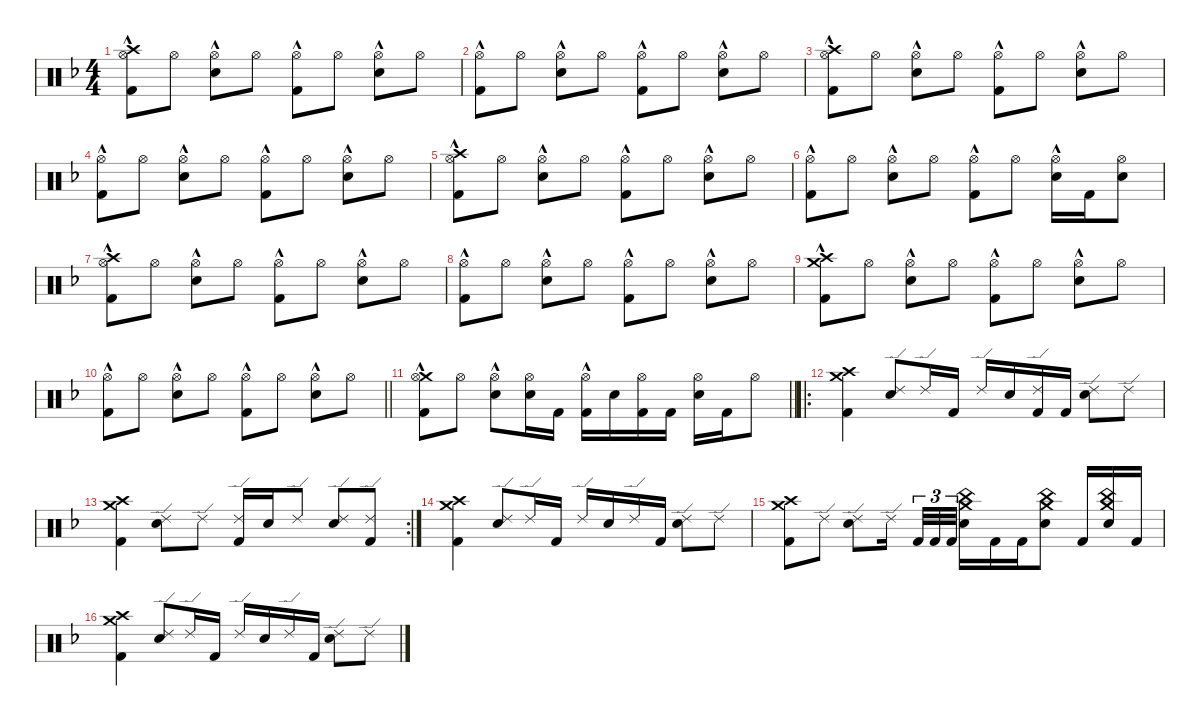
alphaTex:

\defaultSystemsLayout 4
\hideDynamics
\bracketExtendMode nobrackets
\singleTrackTrackNamePolicy hidden
\multiTrackTrackNamePolicy hidden
\otherSystemsTrackNameOrientation horizontal
\track ("Martin Lopez - Drums" "drm.") {defaultSystemsLayout 4 instrument percussion}
\staff {score}
\articulation defaults
\ts (4 4)
\tempo (89 hide)
\clef neutral
\ks dminor
("Crash high (hit)"{acc forcenatural} "Hi-Hat (open)"{acc forcenatural} "Kick (hit) 2"{hac acc forcenatural}).8{dy mf beam Down} "Hi-Hat (open)"{acc forcenatural}.8{beam Down} ("Hi-Hat (open)"{acc forcenatural} "Snare (hit) 2"{hac acc forcenatural}).8{beam Down} "Hi-Hat (open)"{acc forcenatural}.8{beam Down} ("Hi-Hat (open)"{acc forcenatural} "Kick (hit) 2"{hac acc forcenatural}).8{beam Down} "Hi-Hat (open)"{acc forcenatural}.8{beam Down} ("Hi-Hat (open)"{acc forcenatural} "Snare (hit) 2"{hac acc forcenatural}).8{beam Down} "Hi-Hat (open)"{acc forcenatural}.8{beam Down} |
\tempo (88 hide)
("Hi-Hat (open)"{acc forcenatural} "Kick (hit) 2"{hac acc forcenatural}).8{beam Down} "Hi-Hat (open)"{acc forcenatural}.8{beam Down} ("Hi-Hat (open)"{acc forcenatural} "Snare (hit) 2"{hac acc forcenatural}).8{beam Down} "Hi-Hat (open)"{acc forcenatural}.8{beam Down} ("Hi-Hat (open)"{acc forcenatural} "Kick (hit) 2"{hac acc forcenatural}).8{beam Down} "Hi-Hat (open)"{acc forcenatural}.8{beam Down} ("Hi-Hat (open)"{acc forcenatural} "Snare (hit) 2"{hac acc forcenatural}).8{beam Down} "Hi-Hat (open)"{acc forcenatural}.8{beam Down} |
\tempo (89 hide)
("Crash high (hit)"{acc forcenatural} "Hi-Hat (open)"{acc forcenatural} "Kick (hit) 2"{hac acc forcenatural}).8{beam Down} "Hi-Hat (open)"{acc forcenatural}.8{beam Down} ("Hi-Hat (open)"{acc forcenatural} "Snare (hit) 2"{hac acc forcenatural}).8{beam Down} "Hi-Hat (open)"{acc forcenatural}.8{beam Down} ("Hi-Hat (open)"{acc forcenatural} "Kick (hit) 2"{hac acc forcenatural}).8{beam Down} "Hi-Hat (open)"{acc forcenatural}.8{beam Down} ("Hi-Hat (open)"{acc forcenatural} "Snare (hit) 2"{hac acc forcenatural}).8{beam Down} "Hi-Hat (open)"{acc forcenatural}.8{beam Down} |
\tempo (88 hide)
("Hi-Hat (open)"{acc forcenatural} "Kick (hit) 2"{hac acc forcenatural}).8{beam Down} "Hi-Hat (open)"{acc forcenatural}.8{beam Down} ("Hi-Hat (open)"{acc forcenatural} "Snare (hit) 2"{hac acc forcenatural}).8{beam Down} "Hi-Hat (open)"{acc forcenatural}.8{beam Down} ("Hi-Hat (open)"{acc forcenatural} "Kick (hit) 2"{hac acc forcenatural}).8{beam Down} "Hi-Hat (open)"{acc forcenatural}.8{beam Down} ("Hi-Hat (open)"{acc forcenatural} "Snare (hit) 2"{hac acc forcenatural}).8{beam Down} "Hi-Hat (open)"{acc forcenatural}.8{beam Down} |
\tempo (89 hide)
\tempo (88 0.99375 hide)
("Crash high (hit)"{acc forcenatural} "Hi-Hat (open)"{acc forcenatural} "Kick (hit) 2"{hac acc forcenatural}).8{beam Down} "Hi-Hat (open)"{acc forcenatural}.8{beam Down} ("Hi-Hat (open)"{acc forcenatural} "Snare (hit) 2"{hac acc forcenatural}).8{beam Down} "Hi-Hat (open)"{acc forcenatural}.8{beam Down} ("Hi-Hat (open)"{acc forcenatural} "Kick (hit) 2"{hac acc forcenatural}).8{beam Down} "Hi-Hat (open)"{acc forcenatural}.8{beam Down} ("Hi-Hat (open)"{acc forcenatural} "Snare (hit) 2"{hac acc forcenatural}).8{beam Down} "Hi-Hat (open)"{acc forcenatural}.8{beam Down} |
("Hi-Hat (open)"{acc forcenatural} "Kick (hit) 2"{hac acc forcenatural}).8{beam Down} "Hi-Hat (open)"{acc forcenatural}.8{beam Down} ("Hi-Hat (open)"{acc forcenatural} "Snare (hit) 2"{hac acc forcenatural}).8{beam Down} "Hi-Hat (open)"{acc forcenatural}.8{beam Down} ("Hi-Hat (open)"{acc forcenatural} "Kick (hit) 2"{hac acc forcenatural}).8{beam Down} "Hi-Hat (open)"{acc forcenatural}.8{beam Down} ("Hi-Hat (open)"{acc forcenatural} "Snare (hit) 2"{hac acc forcenatural}).16{beam Down} "Kick (hit) 2"{acc forcenatural}.16{beam Down} ("Hi-Hat (open)"{acc forcenatural} "Snare (hit) 2"{acc forcenatural}).8{beam Down} |
\tempo (89 0.00625 hide)
\tempo (88 0.99375 hide)
("Crash high (hit)"{acc forcenatural} "Hi-Hat (open)"{acc forcenatural} "Kick (hit) 2"{hac acc forcenatural}).8{beam Down} "Hi-Hat (open)"{acc forcenatural}.8{beam Down} ("Hi-Hat (open)"{acc forcenatural} "Snare (hit) 2"{hac acc forcenatural}).8{beam Down} "Hi-Hat (open)"{acc forcenatural}.8{beam Down} ("Hi-Hat (open)"{acc forcenatural} "Kick (hit) 2"{hac acc forcenatural}).8{beam Down} "Hi-Hat (open)"{acc forcenatural}.8{beam Down} ("Hi-Hat (open)"{acc forcenatural} "Snare (hit) 2"{hac acc forcenatural}).8{beam Down} "Hi-Hat (open)"{acc forcenatural}.8{beam Down} |
("Hi-Hat (open)"{acc forcenatural} "Kick (hit) 2"{hac acc forcenatural}).8{beam Down} "Hi-Hat (open)"{acc forcenatural}.8{beam Down} ("Hi-Hat (open)"{acc forcenatural} "Snare (hit) 2"{hac acc forcenatural}).8{beam Down} "Hi-Hat (open)"{acc forcenatural}.8{beam Down} ("Hi-Hat (open)"{acc forcenatural} "Kick (hit) 2"{hac acc forcenatural}).8{beam Down} "Hi-Hat (open)"{acc forcenatural}.8{beam Down} ("Hi-Hat (open)"{acc forcenatural} "Snare (hit) 2"{hac acc forcenatural}).8{beam Down} "Hi-Hat (open)"{acc forcenatural}.8{beam Down} |
\tempo (89 hide)
("Crash high (hit)"{acc forcenatural} "Crash medium (hit)"{acc forcenatural} "Kick (hit) 2"{hac acc forcenatural}).8{beam Down} "Hi-Hat (open)"{acc forcenatural}.8{beam Down} ("Hi-Hat (open)"{acc forcenatural} "Snare (hit) 2"{hac acc forcenatural}).8{beam Down} "Hi-Hat (open)"{acc forcenatural}.8{beam Down} ("Hi-Hat (open)"{acc forcenatural} "Kick (hit) 2"{hac acc forcenatural}).8{beam Down} "Hi-Hat (open)"{acc forcenatural}.8{beam Down} ("Hi-Hat (open)"{acc forcenatural} "Snare (hit) 2"{hac acc forcenatural}).8{beam Down} "Hi-Hat (open)"{acc forcenatural}.8{beam Down} |
\tempo (88 hide)
\barLineRight lightlight
("Hi-Hat (open)"{acc forcenatural} "Kick (hit) 2"{hac acc forcenatural}).8{beam Down} "Hi-Hat (open)"{acc forcenatural}.8{beam Down} ("Hi-Hat (open)"{acc forcenatural} "Snare (hit) 2"{hac acc forcenatural}).8{beam Down} "Hi-Hat (open)"{acc forcenatural}.8{beam Down} ("Hi-Hat (open)"{acc forcenatural} "Kick (hit) 2"{hac acc forcenatural}).8{beam Down} "Hi-Hat (open)"{acc forcenatural}.8{beam Down} ("Hi-Hat (open)"{acc forcenatural} "Snare (hit) 2"{hac acc forcenatural}).8{beam Down} "Hi-Hat (open)"{acc forcenatural}.8{beam Down} |
\tempo (89 0.00625 hide)
\barLineRight lightlight
("Crash medium (hit)"{acc forcenatural} "Hi-Hat (open)"{acc forcenatural} "Kick (hit) 2"{hac acc forcenatural}).8{beam Down} "Hi-Hat (open)"{acc forcenatural}.8{beam Down} ("Hi-Hat (open)"{acc forcenatural} "Snare (hit) 2"{hac acc forcenatural}).8{beam Down} ("Hi-Hat (open)"{acc forcenatural} "Snare (hit) 2"{acc forcenatural}).16{beam Down} "Kick (hit) 2"{acc forcenatural}.16{beam Down} ("Hi-Hat (open)"{acc forcenatural} "Kick (hit) 2"{hac acc forcenatural}).16{beam Down} "Snare (hit) 2"{acc forcenatural}.16{beam Down} ("Hi-Hat (open)"{acc forcenatural} "Kick (hit) 2"{acc forcenatural}).16{beam Down} "Kick (hit) 2"{acc forcenatural}.16{beam Down} ("Hi-Hat (open)"{acc forcenatural} "Snare (hit) 2"{acc forcenatural}).16{beam Down} "Kick (hit) 2"{acc forcenatural}.16{beam Down} "Hi-Hat (open)"{acc forcenatural}.8{beam Down} |
\ro
\tempo (88 0.00625 hide)
("Crash high (hit)"{acc forcenatural} "Crash medium (hit)"{acc forcenatural} "Kick (hit) 2"{acc forcenatural}).4{beam Down} ("Ride (edge) 2"{acc forcenatural} "Snare (hit) 2"{acc forcenatural}).8{beam Up} "Ride (edge) 2"{acc forcenatural}.16{beam Up} "Kick (hit) 2"{acc forcenatural}.16{beam Up} "Ride (edge) 2"{acc forcenatural}.16{beam Up} "Snare (hit) 2"{acc forcenatural}.16{beam Up} ("Ride (edge) 2"{acc forcenatural} "Kick (hit) 2"{acc forcenatural}).16{beam Up} "Kick (hit) 2"{acc forcenatural}.16{beam Up} ("Ride (edge) 2"{acc forcenatural} "Snare (hit) 2"{acc forcenatural}).8{beam Down} "Ride (edge) 2"{acc forcenatural}.8{beam Down} |
\rc 2
\tempo (89 hide)
("Crash high (hit)"{acc forcenatural} "Crash medium (hit)"{acc forcenatural} "Kick (hit) 2"{acc forcenatural}).4{beam Down} ("Ride (edge) 2"{acc forcenatural} "Snare (hit) 2"{acc forcenatural}).8{beam Down} "Ride (edge) 2"{acc forcenatural}.8{beam Down} ("Ride (edge) 2"{acc forcenatural} "Kick (hit) 2"{acc forcenatural}).16{beam Up} "Snare (hit) 2"{acc forcenatural}.16{beam Up} "Ride (edge) 2"{acc forcenatural}.8{beam Up} ("Ride (edge) 2"{acc forcenatural} "Snare (hit) 2"{acc forcenatural}).8{beam Up} ("Ride (edge) 2"{acc forcenatural} "Kick (hit) 2"{acc forcenatural}).8{beam Up} |
\tempo (88 hide)
\tempo (89 0.99375 hide)
("Crash high (hit)"{acc forcenatural} "Crash medium (hit)"{acc forcenatural} "Kick (hit) 2"{acc forcenatural}).4{beam Down} ("Ride (edge) 2"{acc forcenatural} "Snare (hit) 2"{acc forcenatural}).8{beam Up} "Ride (edge) 2"{acc forcenatural}.16{beam Up} "Kick (hit) 2"{acc forcenatural}.16{beam Up} "Ride (edge) 2"{acc forcenatural}.16{beam Up} "Snare (hit) 2"{acc forcenatural}.16{beam Up} "Ride (edge) 2"{acc forcenatural}.16{beam Up} "Kick (hit) 2"{acc forcenatural}.16{beam Up} ("Ride (edge) 2"{acc forcenatural} "Snare (hit) 2"{acc forcenatural}).8{beam Down} "Ride (edge) 2"{acc forcenatural}.8{beam Down} |
("Crash high (hit)"{acc forcenatural} "Crash medium (hit)"{acc forcenatural} "Kick (hit) 2"{acc forcenatural}).8{beam Down} "Ride (edge) 2"{acc forcenatural}.8{beam Down} ("Ride (edge) 2"{acc forcenatural} "Snare (hit) 2"{acc forcenatural}).8{beam Down} "Ride (edge) 2"{acc forcenatural}.16{beam Down} "Kick (hit) 2"{acc forcenatural}.32{tu (3 2) beam Up} "Kick (hit) 2"{acc forcenatural}.32{tu (3 2) beam Up} "Kick (hit) 2"{acc forcenatural}.32{tu (3 2) beam Up} ("Crash medium (hit)"{acc forcenatural} "China (hit)"{acc forcenatural} "Snare (hit) 2"{acc forcenatural}).16{beam Down} "Kick (hit) 2"{acc forcenatural}.16{beam Down} "Kick (hit) 2"{acc forcenatural}.16{beam Down} ("Crash medium (hit)"{acc forcenatural} "China (hit)"{acc forcenatural} "Snare (hit) 2"{acc forcenatural}).8{beam Down} "Kick (hit) 2"{acc forcenatural}.16{beam Up} ("Crash medium (hit)"{acc forcenatural} "China (hit)"{acc forcenatural} "Snare (hit) 2"{acc forcenatural}).16{beam Up} "Kick (hit) 2"{acc forcenatural}.16{beam Up} |
\tempo (88 0.00625 hide)
\tempo (89 0.99375 hide)
("Crash high (hit)"{acc forcenatural} "Crash medium (hit)"{acc forcenatural} "Kick (hit) 2"{acc forcenatural}).4{beam Down} ("Ride (edge) 2"{acc forcenatural} "Snare (hit) 2"{acc forcenatural}).8{beam Up} "Ride (edge) 2"{acc forcenatural}.16{beam Up} "Kick (hit) 2"{acc forcenatural}.16{beam Up} "Ride (edge) 2"{acc forcenatural}.16{beam Up} "Snare (hit) 2"{acc forcenatural}.16{beam Up} "Ride (edge) 2"{acc forcenatural}.16{beam Up} "Kick (hit) 2"{acc forcenatural}.16{beam Up} ("Ride (edge) 2"{acc forcenatural} "Snare (hit) 2"{acc forcenatural}).8{beam Down} "Ride (edge) 2"{acc forcenatural}.8{beam Down}
